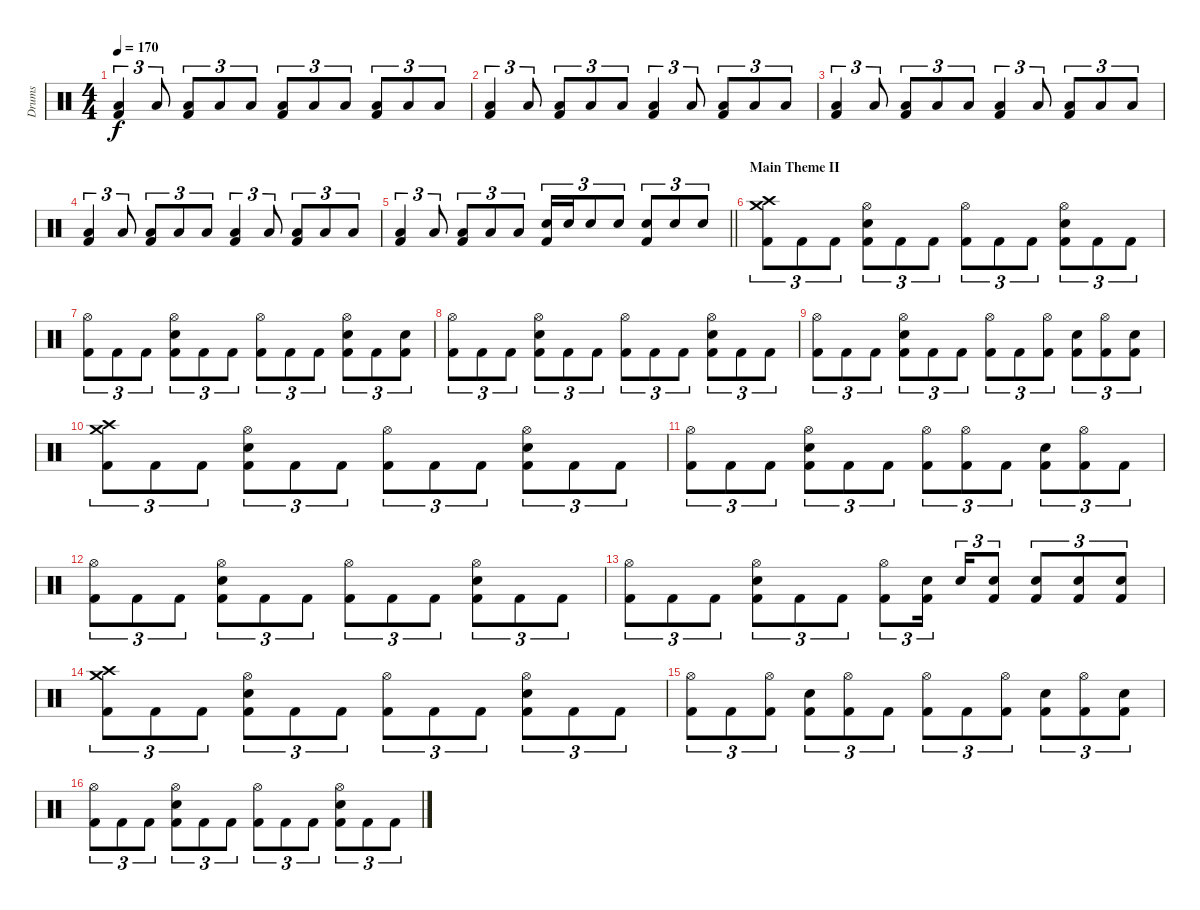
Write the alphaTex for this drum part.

\track ("Drums" "Drums") {instrument percussion}
\staff {score}
\articulation defaults
\ts (4 4)
\tempo 170
\clef neutral
\ks c
("Low Floor Tom (hit)" "Kick (hit) 2").4{tu (3 2) dy f} "Low Floor Tom (hit)".8{tu (3 2)} ("Low Floor Tom (hit)" "Kick (hit) 2").8{tu (3 2)} "Low Floor Tom (hit)".8{tu (3 2)} "Low Floor Tom (hit)".8{tu (3 2)} ("Low Floor Tom (hit)" "Kick (hit) 2").8{tu (3 2)} "Low Floor Tom (hit)".8{tu (3 2)} "Low Floor Tom (hit)".8{tu (3 2)} ("Low Floor Tom (hit)" "Kick (hit) 2").8{tu (3 2)} "Low Floor Tom (hit)".8{tu (3 2)} "Low Floor Tom (hit)".8{tu (3 2)} |
("Low Floor Tom (hit)" "Kick (hit) 2").4{tu (3 2)} "Low Floor Tom (hit)".8{tu (3 2)} ("Low Floor Tom (hit)" "Kick (hit) 2").8{tu (3 2)} "Low Floor Tom (hit)".8{tu (3 2)} "Low Floor Tom (hit)".8{tu (3 2)} ("Low Floor Tom (hit)" "Kick (hit) 2").4{tu (3 2)} "Low Floor Tom (hit)".8{tu (3 2)} ("Low Floor Tom (hit)" "Kick (hit) 2").8{tu (3 2)} "Low Floor Tom (hit)".8{tu (3 2)} "Low Floor Tom (hit)".8{tu (3 2)} |
("Low Floor Tom (hit)" "Kick (hit) 2").4{tu (3 2)} "Low Floor Tom (hit)".8{tu (3 2)} ("Low Floor Tom (hit)" "Kick (hit) 2").8{tu (3 2)} "Low Floor Tom (hit)".8{tu (3 2)} "Low Floor Tom (hit)".8{tu (3 2)} ("Low Floor Tom (hit)" "Kick (hit) 2").4{tu (3 2)} "Low Floor Tom (hit)".8{tu (3 2)} ("Low Floor Tom (hit)" "Kick (hit) 2").8{tu (3 2)} "Low Floor Tom (hit)".8{tu (3 2)} "Low Floor Tom (hit)".8{tu (3 2)} |
("Low Floor Tom (hit)" "Kick (hit) 2").4{tu (3 2)} "Low Floor Tom (hit)".8{tu (3 2)} ("Low Floor Tom (hit)" "Kick (hit) 2").8{tu (3 2)} "Low Floor Tom (hit)".8{tu (3 2)} "Low Floor Tom (hit)".8{tu (3 2)} ("Low Floor Tom (hit)" "Kick (hit) 2").4{tu (3 2)} "Low Floor Tom (hit)".8{tu (3 2)} ("Low Floor Tom (hit)" "Kick (hit) 2").8{tu (3 2)} "Low Floor Tom (hit)".8{tu (3 2)} "Low Floor Tom (hit)".8{tu (3 2)} |
\barLineRight lightlight
("Low Floor Tom (hit)" "Kick (hit) 2").4{tu (3 2)} "Low Floor Tom (hit)".8{tu (3 2)} ("Low Floor Tom (hit)" "Kick (hit) 2").8{tu (3 2)} "Low Floor Tom (hit)".8{tu (3 2)} "Low Floor Tom (hit)".8{tu (3 2)} ("Electric Snare (hit)" "Kick (hit) 2").16{tu (3 2)} "Electric Snare (hit)".16{tu (3 2)} "Electric Snare (hit)".8{tu (3 2)} "Electric Snare (hit)".8{tu (3 2)} ("Electric Snare (hit)" "Kick (hit) 2").8{tu (3 2)} "Electric Snare (hit)".8{tu (3 2)} "Electric Snare (hit)".8{tu (3 2)} |
\section ("" "Main Theme II")
("Crash medium (hit)" "Crash high (hit)" "Kick (hit) 2").8{tu (3 2)} "Kick (hit) 2".8{tu (3 2)} "Kick (hit) 2".8{tu (3 2)} ("Hi-Hat (open)" "Electric Snare (hit)" "Kick (hit) 2").8{tu (3 2)} "Kick (hit) 2".8{tu (3 2)} "Kick (hit) 2".8{tu (3 2)} ("Hi-Hat (open)" "Kick (hit) 2").8{tu (3 2)} "Kick (hit) 2".8{tu (3 2)} "Kick (hit) 2".8{tu (3 2)} ("Hi-Hat (open)" "Electric Snare (hit)" "Kick (hit) 2").8{tu (3 2)} "Kick (hit) 2".8{tu (3 2)} "Kick (hit) 2".8{tu (3 2)} |
("Hi-Hat (open)" "Kick (hit) 2").8{tu (3 2)} "Kick (hit) 2".8{tu (3 2)} "Kick (hit) 2".8{tu (3 2)} ("Hi-Hat (open)" "Electric Snare (hit)" "Kick (hit) 2").8{tu (3 2)} "Kick (hit) 2".8{tu (3 2)} "Kick (hit) 2".8{tu (3 2)} ("Hi-Hat (open)" "Kick (hit) 2").8{tu (3 2)} "Kick (hit) 2".8{tu (3 2)} "Kick (hit) 2".8{tu (3 2)} ("Hi-Hat (open)" "Electric Snare (hit)" "Kick (hit) 2").8{tu (3 2)} "Kick (hit) 2".8{tu (3 2)} ("Electric Snare (hit)" "Kick (hit) 2").8{tu (3 2)} |
("Hi-Hat (open)" "Kick (hit) 2").8{tu (3 2)} "Kick (hit) 2".8{tu (3 2)} "Kick (hit) 2".8{tu (3 2)} ("Hi-Hat (open)" "Electric Snare (hit)" "Kick (hit) 2").8{tu (3 2)} "Kick (hit) 2".8{tu (3 2)} "Kick (hit) 2".8{tu (3 2)} ("Hi-Hat (open)" "Kick (hit) 2").8{tu (3 2)} "Kick (hit) 2".8{tu (3 2)} "Kick (hit) 2".8{tu (3 2)} ("Hi-Hat (open)" "Electric Snare (hit)" "Kick (hit) 2").8{tu (3 2)} "Kick (hit) 2".8{tu (3 2)} "Kick (hit) 2".8{tu (3 2)} |
("Hi-Hat (open)" "Kick (hit) 2").8{tu (3 2)} "Kick (hit) 2".8{tu (3 2)} "Kick (hit) 2".8{tu (3 2)} ("Hi-Hat (open)" "Electric Snare (hit)" "Kick (hit) 2").8{tu (3 2)} "Kick (hit) 2".8{tu (3 2)} "Kick (hit) 2".8{tu (3 2)} ("Hi-Hat (open)" "Kick (hit) 2").8{tu (3 2)} "Kick (hit) 2".8{tu (3 2)} ("Hi-Hat (open)" "Kick (hit) 2").8{tu (3 2)} ("Electric Snare (hit)" "Kick (hit) 2").8{tu (3 2)} ("Hi-Hat (open)" "Kick (hit) 2").8{tu (3 2)} ("Electric Snare (hit)" "Kick (hit) 2").8{tu (3 2)} |
("Crash medium (hit)" "Crash high (hit)" "Kick (hit) 2").8{tu (3 2)} "Kick (hit) 2".8{tu (3 2)} "Kick (hit) 2".8{tu (3 2)} ("Hi-Hat (open)" "Electric Snare (hit)" "Kick (hit) 2").8{tu (3 2)} "Kick (hit) 2".8{tu (3 2)} "Kick (hit) 2".8{tu (3 2)} ("Hi-Hat (open)" "Kick (hit) 2").8{tu (3 2)} "Kick (hit) 2".8{tu (3 2)} "Kick (hit) 2".8{tu (3 2)} ("Hi-Hat (open)" "Electric Snare (hit)" "Kick (hit) 2").8{tu (3 2)} "Kick (hit) 2".8{tu (3 2)} "Kick (hit) 2".8{tu (3 2)} |
("Hi-Hat (open)" "Kick (hit) 2").8{tu (3 2)} "Kick (hit) 2".8{tu (3 2)} "Kick (hit) 2".8{tu (3 2)} ("Hi-Hat (open)" "Electric Snare (hit)" "Kick (hit) 2").8{tu (3 2)} "Kick (hit) 2".8{tu (3 2)} "Kick (hit) 2".8{tu (3 2)} ("Hi-Hat (open)" "Kick (hit) 2").8{tu (3 2)} ("Hi-Hat (open)" "Kick (hit) 2").8{tu (3 2)} "Kick (hit) 2".8{tu (3 2)} ("Electric Snare (hit)" "Kick (hit) 2").8{tu (3 2)} ("Hi-Hat (open)" "Kick (hit) 2").8{tu (3 2)} "Kick (hit) 2".8{tu (3 2)} |
("Hi-Hat (open)" "Kick (hit) 2").8{tu (3 2)} "Kick (hit) 2".8{tu (3 2)} "Kick (hit) 2".8{tu (3 2)} ("Hi-Hat (open)" "Electric Snare (hit)" "Kick (hit) 2").8{tu (3 2)} "Kick (hit) 2".8{tu (3 2)} "Kick (hit) 2".8{tu (3 2)} ("Hi-Hat (open)" "Kick (hit) 2").8{tu (3 2)} "Kick (hit) 2".8{tu (3 2)} "Kick (hit) 2".8{tu (3 2)} ("Hi-Hat (open)" "Electric Snare (hit)" "Kick (hit) 2").8{tu (3 2)} "Kick (hit) 2".8{tu (3 2)} "Kick (hit) 2".8{tu (3 2)} |
("Hi-Hat (open)" "Kick (hit) 2").8{tu (3 2)} "Kick (hit) 2".8{tu (3 2)} "Kick (hit) 2".8{tu (3 2)} ("Hi-Hat (open)" "Electric Snare (hit)" "Kick (hit) 2").8{tu (3 2)} "Kick (hit) 2".8{tu (3 2)} "Kick (hit) 2".8{tu (3 2)} ("Hi-Hat (open)" "Kick (hit) 2").8{tu (3 2)} ("Electric Snare (hit)" "Kick (hit) 2").16{tu (3 2) beam splitsecondary} "Electric Snare (hit)".16{tu (3 2)} ("Electric Snare (hit)" "Kick (hit) 2").8{tu (3 2)} ("Electric Snare (hit)" "Kick (hit) 2").8{tu (3 2)} ("Electric Snare (hit)" "Kick (hit) 2").8{tu (3 2)} ("Electric Snare (hit)" "Kick (hit) 2").8{tu (3 2)} |
("Crash medium (hit)" "Crash high (hit)" "Kick (hit) 2").8{tu (3 2)} "Kick (hit) 2".8{tu (3 2)} "Kick (hit) 2".8{tu (3 2)} ("Hi-Hat (open)" "Electric Snare (hit)" "Kick (hit) 2").8{tu (3 2)} "Kick (hit) 2".8{tu (3 2)} "Kick (hit) 2".8{tu (3 2)} ("Hi-Hat (open)" "Kick (hit) 2").8{tu (3 2)} "Kick (hit) 2".8{tu (3 2)} "Kick (hit) 2".8{tu (3 2)} ("Hi-Hat (open)" "Electric Snare (hit)" "Kick (hit) 2").8{tu (3 2)} "Kick (hit) 2".8{tu (3 2)} "Kick (hit) 2".8{tu (3 2)} |
("Hi-Hat (open)" "Kick (hit) 2").8{tu (3 2)} "Kick (hit) 2".8{tu (3 2)} ("Hi-Hat (open)" "Kick (hit) 2").8{tu (3 2)} ("Electric Snare (hit)" "Kick (hit) 2").8{tu (3 2)} ("Hi-Hat (open)" "Kick (hit) 2").8{tu (3 2)} "Kick (hit) 2".8{tu (3 2)} ("Hi-Hat (open)" "Kick (hit) 2").8{tu (3 2)} "Kick (hit) 2".8{tu (3 2)} ("Hi-Hat (open)" "Kick (hit) 2").8{tu (3 2)} ("Electric Snare (hit)" "Kick (hit) 2").8{tu (3 2)} ("Hi-Hat (open)" "Kick (hit) 2").8{tu (3 2)} ("Electric Snare (hit)" "Kick (hit) 2").8{tu (3 2)} |
("Hi-Hat (open)" "Kick (hit) 2").8{tu (3 2)} "Kick (hit) 2".8{tu (3 2)} "Kick (hit) 2".8{tu (3 2)} ("Hi-Hat (open)" "Electric Snare (hit)" "Kick (hit) 2").8{tu (3 2)} "Kick (hit) 2".8{tu (3 2)} "Kick (hit) 2".8{tu (3 2)} ("Hi-Hat (open)" "Kick (hit) 2").8{tu (3 2)} "Kick (hit) 2".8{tu (3 2)} "Kick (hit) 2".8{tu (3 2)} ("Hi-Hat (open)" "Electric Snare (hit)" "Kick (hit) 2").8{tu (3 2)} "Kick (hit) 2".8{tu (3 2)} "Kick (hit) 2".8{tu (3 2)}
